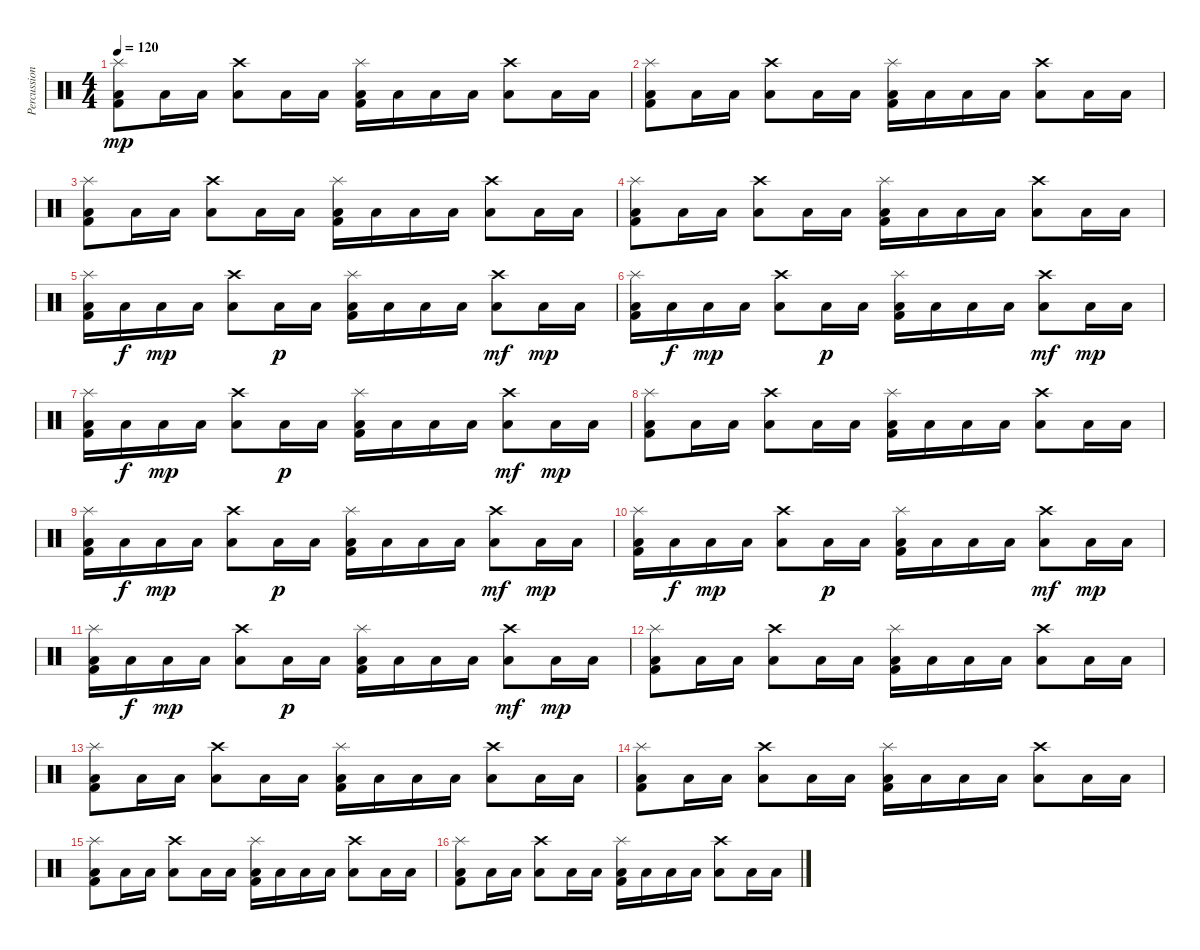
\track ("Percussions" "Percussion") {instrument percussion}
\staff {score}
\articulation defaults
\ts (4 4)
\tempo 120
\clef neutral
\ks c
("Splash (hit)" "Low Tom (hit)" "Kick (hit) 2").8{dy mp} "Low Tom (hit)".16 "Low Tom (hit)".16 ("Crash high (hit)" "Low Tom (hit)").8 "Low Tom (hit)".16 "Low Tom (hit)".16 ("Splash (hit)" "Low Tom (hit)" "Kick (hit) 2").16 "Low Tom (hit)".16 "Low Tom (hit)".16 "Low Tom (hit)".16 ("Crash high (hit)" "Low Tom (hit)").8 "Low Tom (hit)".16 "Low Tom (hit)".16 |
("Splash (hit)" "Low Tom (hit)" "Kick (hit) 2").8 "Low Tom (hit)".16 "Low Tom (hit)".16 ("Crash high (hit)" "Low Tom (hit)").8 "Low Tom (hit)".16 "Low Tom (hit)".16 ("Splash (hit)" "Low Tom (hit)" "Kick (hit) 2").16 "Low Tom (hit)".16 "Low Tom (hit)".16 "Low Tom (hit)".16 ("Crash high (hit)" "Low Tom (hit)").8 "Low Tom (hit)".16 "Low Tom (hit)".16 |
("Splash (hit)" "Low Tom (hit)" "Kick (hit) 2").8 "Low Tom (hit)".16 "Low Tom (hit)".16 ("Crash high (hit)" "Low Tom (hit)").8 "Low Tom (hit)".16 "Low Tom (hit)".16 ("Splash (hit)" "Low Tom (hit)" "Kick (hit) 2").16 "Low Tom (hit)".16 "Low Tom (hit)".16 "Low Tom (hit)".16 ("Crash high (hit)" "Low Tom (hit)").8 "Low Tom (hit)".16 "Low Tom (hit)".16 |
("Splash (hit)" "Low Tom (hit)" "Kick (hit) 2").8 "Low Tom (hit)".16 "Low Tom (hit)".16 ("Crash high (hit)" "Low Tom (hit)").8 "Low Tom (hit)".16 "Low Tom (hit)".16 ("Splash (hit)" "Low Tom (hit)" "Kick (hit) 2").16 "Low Tom (hit)".16 "Low Tom (hit)".16 "Low Tom (hit)".16 ("Crash high (hit)" "Low Tom (hit)").8 "Low Tom (hit)".16 "Low Tom (hit)".16 |
("Splash (hit)" "Low Tom (hit)" "Kick (hit) 2").16 "Low Tom (hit)".16{dy f} "Low Tom (hit)".16{dy mp} "Low Tom (hit)".16 ("Crash high (hit)" "Low Tom (hit)").8 "Low Tom (hit)".16{dy p} "Low Tom (hit)".16 ("Splash (hit)" "Low Tom (hit)" "Kick (hit) 2").16 "Low Tom (hit)".16 "Low Tom (hit)".16 "Low Tom (hit)".16 ("Crash high (hit)" "Low Tom (hit)").8{dy mf} "Low Tom (hit)".16{dy mp} "Low Tom (hit)".16 |
("Splash (hit)" "Low Tom (hit)" "Kick (hit) 2").16 "Low Tom (hit)".16{dy f} "Low Tom (hit)".16{dy mp} "Low Tom (hit)".16 ("Crash high (hit)" "Low Tom (hit)").8 "Low Tom (hit)".16{dy p} "Low Tom (hit)".16 ("Splash (hit)" "Low Tom (hit)" "Kick (hit) 2").16 "Low Tom (hit)".16 "Low Tom (hit)".16 "Low Tom (hit)".16 ("Crash high (hit)" "Low Tom (hit)").8{dy mf} "Low Tom (hit)".16{dy mp} "Low Tom (hit)".16 |
("Splash (hit)" "Low Tom (hit)" "Kick (hit) 2").16 "Low Tom (hit)".16{dy f} "Low Tom (hit)".16{dy mp} "Low Tom (hit)".16 ("Crash high (hit)" "Low Tom (hit)").8 "Low Tom (hit)".16{dy p} "Low Tom (hit)".16 ("Splash (hit)" "Low Tom (hit)" "Kick (hit) 2").16 "Low Tom (hit)".16 "Low Tom (hit)".16 "Low Tom (hit)".16 ("Crash high (hit)" "Low Tom (hit)").8{dy mf} "Low Tom (hit)".16{dy mp} "Low Tom (hit)".16 |
("Splash (hit)" "Low Tom (hit)" "Kick (hit) 2").8 "Low Tom (hit)".16 "Low Tom (hit)".16 ("Crash high (hit)" "Low Tom (hit)").8 "Low Tom (hit)".16 "Low Tom (hit)".16 ("Splash (hit)" "Low Tom (hit)" "Kick (hit) 2").16 "Low Tom (hit)".16 "Low Tom (hit)".16 "Low Tom (hit)".16 ("Crash high (hit)" "Low Tom (hit)").8 "Low Tom (hit)".16 "Low Tom (hit)".16 |
("Splash (hit)" "Low Tom (hit)" "Kick (hit) 2").16 "Low Tom (hit)".16{dy f} "Low Tom (hit)".16{dy mp} "Low Tom (hit)".16 ("Crash high (hit)" "Low Tom (hit)").8 "Low Tom (hit)".16{dy p} "Low Tom (hit)".16 ("Splash (hit)" "Low Tom (hit)" "Kick (hit) 2").16 "Low Tom (hit)".16 "Low Tom (hit)".16 "Low Tom (hit)".16 ("Crash high (hit)" "Low Tom (hit)").8{dy mf} "Low Tom (hit)".16{dy mp} "Low Tom (hit)".16 |
("Splash (hit)" "Low Tom (hit)" "Kick (hit) 2").16 "Low Tom (hit)".16{dy f} "Low Tom (hit)".16{dy mp} "Low Tom (hit)".16 ("Crash high (hit)" "Low Tom (hit)").8 "Low Tom (hit)".16{dy p} "Low Tom (hit)".16 ("Splash (hit)" "Low Tom (hit)" "Kick (hit) 2").16 "Low Tom (hit)".16 "Low Tom (hit)".16 "Low Tom (hit)".16 ("Crash high (hit)" "Low Tom (hit)").8{dy mf} "Low Tom (hit)".16{dy mp} "Low Tom (hit)".16 |
("Splash (hit)" "Low Tom (hit)" "Kick (hit) 2").16 "Low Tom (hit)".16{dy f} "Low Tom (hit)".16{dy mp} "Low Tom (hit)".16 ("Crash high (hit)" "Low Tom (hit)").8 "Low Tom (hit)".16{dy p} "Low Tom (hit)".16 ("Splash (hit)" "Low Tom (hit)" "Kick (hit) 2").16 "Low Tom (hit)".16 "Low Tom (hit)".16 "Low Tom (hit)".16 ("Crash high (hit)" "Low Tom (hit)").8{dy mf} "Low Tom (hit)".16{dy mp} "Low Tom (hit)".16 |
("Splash (hit)" "Low Tom (hit)" "Kick (hit) 2").8 "Low Tom (hit)".16 "Low Tom (hit)".16 ("Crash high (hit)" "Low Tom (hit)").8 "Low Tom (hit)".16 "Low Tom (hit)".16 ("Splash (hit)" "Low Tom (hit)" "Kick (hit) 2").16 "Low Tom (hit)".16 "Low Tom (hit)".16 "Low Tom (hit)".16 ("Crash high (hit)" "Low Tom (hit)").8 "Low Tom (hit)".16 "Low Tom (hit)".16 |
("Splash (hit)" "Low Tom (hit)" "Kick (hit) 2").8 "Low Tom (hit)".16 "Low Tom (hit)".16 ("Crash high (hit)" "Low Tom (hit)").8 "Low Tom (hit)".16 "Low Tom (hit)".16 ("Splash (hit)" "Low Tom (hit)" "Kick (hit) 2").16 "Low Tom (hit)".16 "Low Tom (hit)".16 "Low Tom (hit)".16 ("Crash high (hit)" "Low Tom (hit)").8 "Low Tom (hit)".16 "Low Tom (hit)".16 |
("Splash (hit)" "Low Tom (hit)" "Kick (hit) 2").8 "Low Tom (hit)".16 "Low Tom (hit)".16 ("Crash high (hit)" "Low Tom (hit)").8 "Low Tom (hit)".16 "Low Tom (hit)".16 ("Splash (hit)" "Low Tom (hit)" "Kick (hit) 2").16 "Low Tom (hit)".16 "Low Tom (hit)".16 "Low Tom (hit)".16 ("Crash high (hit)" "Low Tom (hit)").8 "Low Tom (hit)".16 "Low Tom (hit)".16 |
("Splash (hit)" "Low Tom (hit)" "Kick (hit) 2").8 "Low Tom (hit)".16 "Low Tom (hit)".16 ("Crash high (hit)" "Low Tom (hit)").8 "Low Tom (hit)".16 "Low Tom (hit)".16 ("Splash (hit)" "Low Tom (hit)" "Kick (hit) 2").16 "Low Tom (hit)".16 "Low Tom (hit)".16 "Low Tom (hit)".16 ("Crash high (hit)" "Low Tom (hit)").8 "Low Tom (hit)".16 "Low Tom (hit)".16 |
("Splash (hit)" "Low Tom (hit)" "Kick (hit) 2").8 "Low Tom (hit)".16 "Low Tom (hit)".16 ("Crash high (hit)" "Low Tom (hit)").8 "Low Tom (hit)".16 "Low Tom (hit)".16 ("Splash (hit)" "Low Tom (hit)" "Kick (hit) 2").16 "Low Tom (hit)".16 "Low Tom (hit)".16 "Low Tom (hit)".16 ("Crash high (hit)" "Low Tom (hit)").8 "Low Tom (hit)".16 "Low Tom (hit)".16
